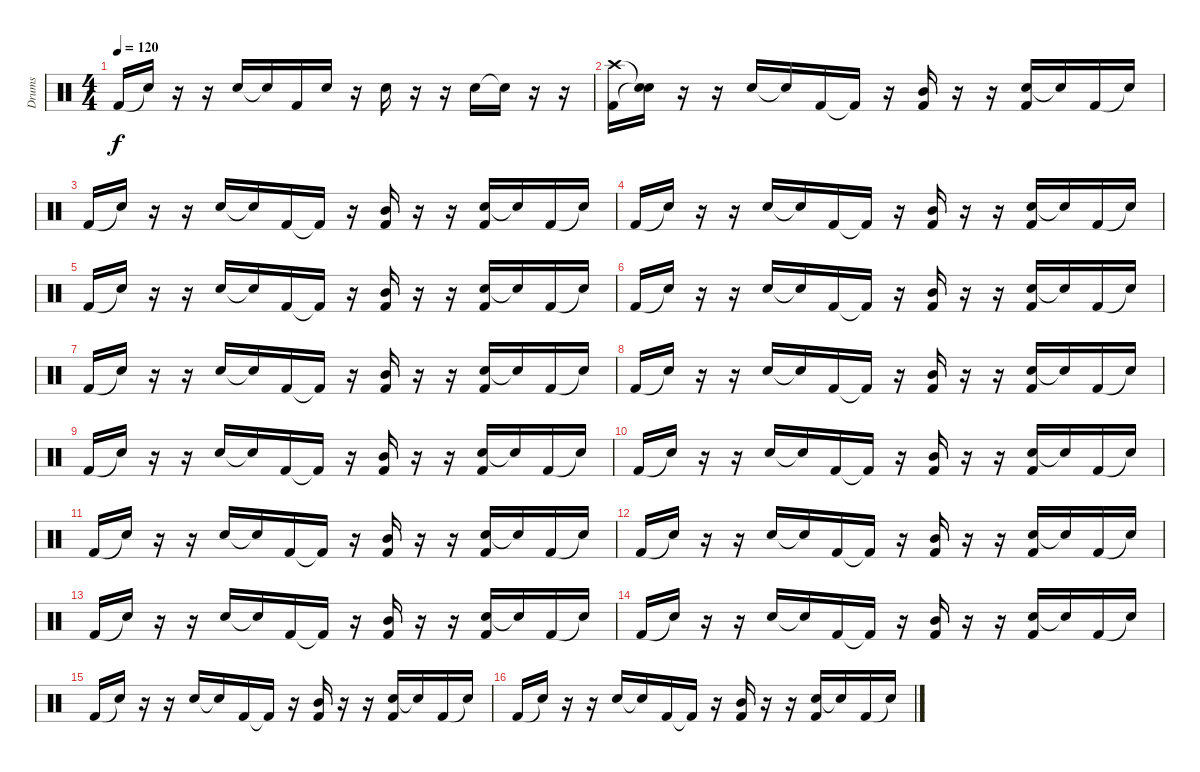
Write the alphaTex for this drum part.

\track ("Drums" "Drums") {instrument percussion}
\staff {score}
\articulation defaults
\ts (4 4)
\tempo 120
\clef neutral
\ks c "Kick (hit) 2".16{dy f} "Snare (hit)"{t}.16
r.16 r.16 "Snare (hit) 2".16 "Snare (hit)"{t}.16 "Kick (hit) 2".16 "Snare (hit) 2".16 r.16 "Snare (hit) 2".16 r.16 r.16 "Snare (hit) 2".16 "Snare (hit)"{t}.16 r.16 r.16 |
("Crash high (hit)" "Kick (hit) 2").16 ("Snare (hit)"{t} "Snare (hit)"{t}).16 r.16 r.16 "Snare (hit) 2".16 "Snare (hit)"{t}.16 "Kick (hit) 2".16 "Kick (hit) 2"{t}.16 r.16 ("Mid Tom (hit)" "Kick (hit) 2").16 r.16 r.16 ("Snare (hit) 2" "Kick (hit) 2").16 "Snare (hit)"{t}.16 "Kick (hit) 2".16 "Snare (hit)"{t}.16 |
"Kick (hit) 2".16 "Snare (hit)"{t}.16 r.16 r.16 "Snare (hit) 2".16 "Snare (hit)"{t}.16 "Kick (hit) 2".16 "Kick (hit) 2"{t}.16 r.16 ("Mid Tom (hit)" "Kick (hit) 2").16 r.16 r.16 ("Snare (hit) 2" "Kick (hit) 2").16 "Snare (hit)"{t}.16 "Kick (hit) 2".16 "Snare (hit)"{t}.16 |
"Kick (hit) 2".16 "Snare (hit)"{t}.16 r.16 r.16 "Snare (hit) 2".16 "Snare (hit)"{t}.16 "Kick (hit) 2".16 "Kick (hit) 2"{t}.16 r.16 ("Mid Tom (hit)" "Kick (hit) 2").16 r.16 r.16 ("Snare (hit) 2" "Kick (hit) 2").16 "Snare (hit)"{t}.16 "Kick (hit) 2".16 "Snare (hit)"{t}.16 |
"Kick (hit) 2".16 "Snare (hit)"{t}.16 r.16 r.16 "Snare (hit) 2".16 "Snare (hit)"{t}.16 "Kick (hit) 2".16 "Kick (hit) 2"{t}.16 r.16 ("Mid Tom (hit)" "Kick (hit) 2").16 r.16 r.16 ("Snare (hit) 2" "Kick (hit) 2").16 "Snare (hit)"{t}.16 "Kick (hit) 2".16 "Snare (hit)"{t}.16 |
"Kick (hit) 2".16 "Snare (hit)"{t}.16 r.16 r.16 "Snare (hit) 2".16 "Snare (hit)"{t}.16 "Kick (hit) 2".16 "Kick (hit) 2"{t}.16 r.16 ("Mid Tom (hit)" "Kick (hit) 2").16 r.16 r.16 ("Snare (hit) 2" "Kick (hit) 2").16 "Snare (hit)"{t}.16 "Kick (hit) 2".16 "Snare (hit)"{t}.16 |
"Kick (hit) 2".16 "Snare (hit)"{t}.16 r.16 r.16 "Snare (hit) 2".16 "Snare (hit)"{t}.16 "Kick (hit) 2".16 "Kick (hit) 2"{t}.16 r.16 ("Mid Tom (hit)" "Kick (hit) 2").16 r.16 r.16 ("Snare (hit) 2" "Kick (hit) 2").16 "Snare (hit)"{t}.16 "Kick (hit) 2".16 "Snare (hit)"{t}.16 |
"Kick (hit) 2".16 "Snare (hit)"{t}.16 r.16 r.16 "Snare (hit) 2".16 "Snare (hit)"{t}.16 "Kick (hit) 2".16 "Kick (hit) 2"{t}.16 r.16 ("Mid Tom (hit)" "Kick (hit) 2").16 r.16 r.16 ("Snare (hit) 2" "Kick (hit) 2").16 "Snare (hit)"{t}.16 "Kick (hit) 2".16 "Snare (hit)"{t}.16 |
"Kick (hit) 2".16 "Snare (hit)"{t}.16 r.16 r.16 "Snare (hit) 2".16 "Snare (hit)"{t}.16 "Kick (hit) 2".16 "Kick (hit) 2"{t}.16 r.16 ("Mid Tom (hit)" "Kick (hit) 2").16 r.16 r.16 ("Snare (hit) 2" "Kick (hit) 2").16 "Snare (hit)"{t}.16 "Kick (hit) 2".16 "Snare (hit)"{t}.16 |
"Kick (hit) 2".16 "Snare (hit)"{t}.16 r.16 r.16 "Snare (hit) 2".16 "Snare (hit)"{t}.16 "Kick (hit) 2".16 "Kick (hit) 2"{t}.16 r.16 ("Mid Tom (hit)" "Kick (hit) 2").16 r.16 r.16 ("Snare (hit) 2" "Kick (hit) 2").16 "Snare (hit)"{t}.16 "Kick (hit) 2".16 "Snare (hit)"{t}.16 |
"Kick (hit) 2".16 "Snare (hit)"{t}.16 r.16 r.16 "Snare (hit) 2".16 "Snare (hit)"{t}.16 "Kick (hit) 2".16 "Kick (hit) 2"{t}.16 r.16 ("Mid Tom (hit)" "Kick (hit) 2").16 r.16 r.16 ("Snare (hit) 2" "Kick (hit) 2").16 "Snare (hit)"{t}.16 "Kick (hit) 2".16 "Snare (hit)"{t}.16 |
"Kick (hit) 2".16 "Snare (hit)"{t}.16 r.16 r.16 "Snare (hit) 2".16 "Snare (hit)"{t}.16 "Kick (hit) 2".16 "Kick (hit) 2"{t}.16 r.16 ("Mid Tom (hit)" "Kick (hit) 2").16 r.16 r.16 ("Snare (hit) 2" "Kick (hit) 2").16 "Snare (hit)"{t}.16 "Kick (hit) 2".16 "Snare (hit)"{t}.16 |
"Kick (hit) 2".16 "Snare (hit)"{t}.16 r.16 r.16 "Snare (hit) 2".16 "Snare (hit)"{t}.16 "Kick (hit) 2".16 "Kick (hit) 2"{t}.16 r.16 ("Mid Tom (hit)" "Kick (hit) 2").16 r.16 r.16 ("Snare (hit) 2" "Kick (hit) 2").16 "Snare (hit)"{t}.16 "Kick (hit) 2".16 "Snare (hit)"{t}.16 |
"Kick (hit) 2".16 "Snare (hit)"{t}.16 r.16 r.16 "Snare (hit) 2".16 "Snare (hit)"{t}.16 "Kick (hit) 2".16 "Kick (hit) 2"{t}.16 r.16 ("Mid Tom (hit)" "Kick (hit) 2").16 r.16 r.16 ("Snare (hit) 2" "Kick (hit) 2").16 "Snare (hit)"{t}.16 "Kick (hit) 2".16 "Snare (hit)"{t}.16 |
"Kick (hit) 2".16 "Snare (hit)"{t}.16 r.16 r.16 "Snare (hit) 2".16 "Snare (hit)"{t}.16 "Kick (hit) 2".16 "Kick (hit) 2"{t}.16 r.16 ("Mid Tom (hit)" "Kick (hit) 2").16 r.16 r.16 ("Snare (hit) 2" "Kick (hit) 2").16 "Snare (hit)"{t}.16 "Kick (hit) 2".16 "Snare (hit)"{t}.16 |
"Kick (hit) 2".16 "Snare (hit)"{t}.16 r.16 r.16 "Snare (hit) 2".16 "Snare (hit)"{t}.16 "Kick (hit) 2".16 "Kick (hit) 2"{t}.16 r.16 ("Mid Tom (hit)" "Kick (hit) 2").16 r.16 r.16 ("Snare (hit) 2" "Kick (hit) 2").16 "Snare (hit)"{t}.16 "Kick (hit) 2".16 "Snare (hit)"{t}.16
